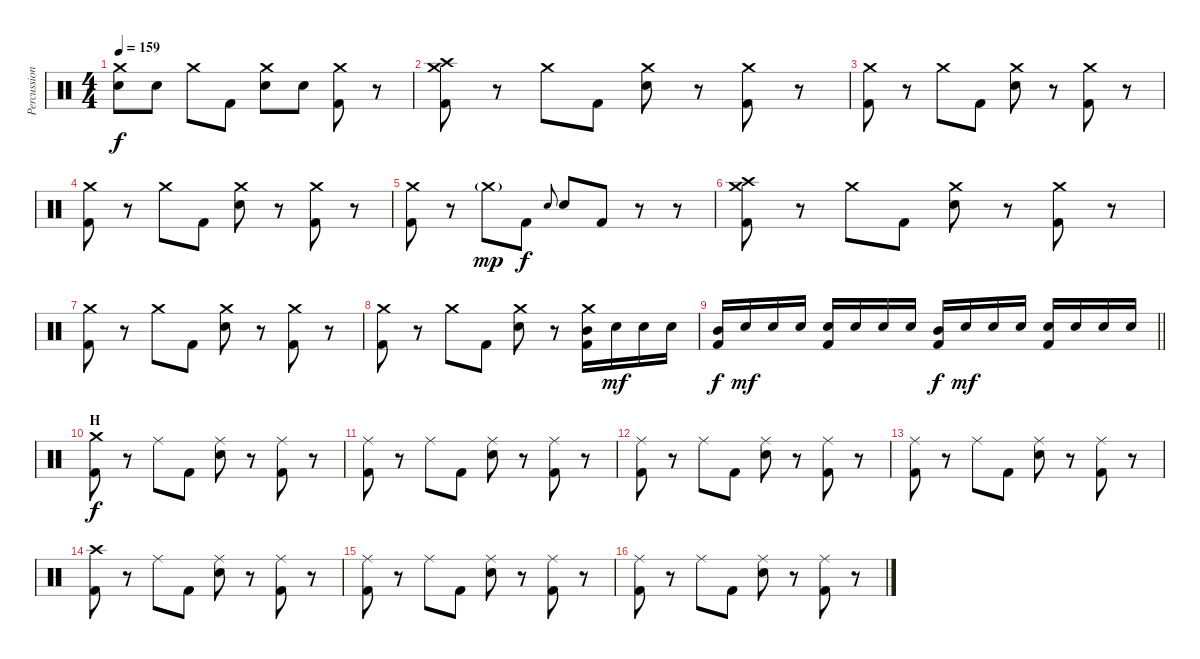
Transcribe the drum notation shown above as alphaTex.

\track ("Percussion" "Percussion") {instrument percussion}
\staff {score}
\articulation defaults
\ts (4 4)
\tempo 159
\clef neutral
\ks c
("Crash medium (hit)" "Snare (hit) 2").8{dy f} "Snare (hit) 2".8 "Crash medium (hit)".8 "Kick (hit) 2".8 ("Crash medium (hit)" "Snare (hit) 2").8 "Snare (hit) 2".8 ("Crash medium (hit)" "Kick (hit) 2").8 r.8 |
("Crash high (hit)" "Crash medium (hit)" "Kick (hit) 2").8 r.8 "Crash medium (hit)".8 "Kick (hit) 2".8 ("Crash medium (hit)" "Snare (hit) 2").8 r.8 ("Crash medium (hit)" "Kick (hit) 2").8 r.8 |
("Crash medium (hit)" "Kick (hit) 2").8 r.8 "Crash medium (hit)".8 "Kick (hit) 2".8 ("Crash medium (hit)" "Snare (hit) 2").8 r.8 ("Crash medium (hit)" "Kick (hit) 2").8 r.8 |
("Crash medium (hit)" "Kick (hit) 2").8 r.8 "Crash medium (hit)".8 "Kick (hit) 2".8 ("Crash medium (hit)" "Snare (hit) 2").8 r.8 ("Crash medium (hit)" "Kick (hit) 2").8 r.8 |
("Crash medium (hit)" "Kick (hit) 2").8 r.8 "Crash medium (hit)"{g}.8{dy mp} "Kick (hit) 2".8{dy f} "Snare (hit) 2".8{gr onbeat} "Snare (hit) 2".8 "Kick (hit) 2".8 r.8 r.8 |
("Crash medium (hit)" "Crash high (hit)" "Kick (hit) 2").8 r.8 "Crash medium (hit)".8 "Kick (hit) 2".8 ("Crash medium (hit)" "Snare (hit) 2").8 r.8 ("Crash medium (hit)" "Kick (hit) 2").8 r.8 |
("Crash medium (hit)" "Kick (hit) 2").8 r.8 "Crash medium (hit)".8 "Kick (hit) 2".8 ("Crash medium (hit)" "Snare (hit) 2").8 r.8 ("Crash medium (hit)" "Kick (hit) 2").8 r.8 |
("Crash medium (hit)" "Kick (hit) 2").8 r.8 "Crash medium (hit)".8 "Kick (hit) 2".8 ("Crash medium (hit)" "Snare (hit) 2").8 r.8 ("Crash medium (hit)" "Mid Tom (hit)" "Kick (hit) 2").16 "Snare (hit) 2".16{dy mf} "Snare (hit) 2".16 "Snare (hit) 2".16 |
\barLineRight lightlight
("Mid Tom (hit)" "Kick (hit) 2").16{dy f} "Snare (hit) 2".16{dy mf} "Snare (hit) 2".16 "Snare (hit) 2".16 ("Snare (hit) 2" "Kick (hit) 2").16 "Snare (hit) 2".16 "Snare (hit) 2".16 "Snare (hit) 2".16 ("Mid Tom (hit)" "Kick (hit) 2").16{dy f} "Snare (hit) 2".16{dy mf} "Snare (hit) 2".16 "Snare (hit) 2".16 ("Snare (hit) 2" "Kick (hit) 2").16 "Snare (hit) 2".16 "Snare (hit) 2".16 "Snare (hit) 2".16 |
\section ("" "H")
("Crash medium (hit)" "Kick (hit) 2").8{dy f} r.8 "Ride (middle)".8 "Kick (hit) 2".8 ("Ride (middle)" "Snare (hit) 2").8 r.8 ("Ride (middle)" "Kick (hit) 2").8 r.8 |
("Ride (middle)" "Kick (hit) 2").8 r.8 "Ride (middle)".8 "Kick (hit) 2".8 ("Ride (middle)" "Snare (hit) 2").8 r.8 ("Ride (middle)" "Kick (hit) 2").8 r.8 |
("Ride (middle)" "Kick (hit) 2").8 r.8 "Ride (middle)".8 "Kick (hit) 2".8 ("Ride (middle)" "Snare (hit) 2").8 r.8 ("Ride (middle)" "Kick (hit) 2").8 r.8 |
("Ride (middle)" "Kick (hit) 2").8 r.8 "Ride (middle)".8 "Kick (hit) 2".8 ("Ride (middle)" "Snare (hit) 2").8 r.8 ("Ride (middle)" "Kick (hit) 2").8 r.8 |
("Crash high (hit)" "Kick (hit) 2").8 r.8 "Ride (middle)".8 "Kick (hit) 2".8 ("Ride (middle)" "Snare (hit) 2").8 r.8 ("Ride (middle)" "Kick (hit) 2").8 r.8 |
("Ride (middle)" "Kick (hit) 2").8 r.8 "Ride (middle)".8 "Kick (hit) 2".8 ("Ride (middle)" "Snare (hit) 2").8 r.8 ("Ride (middle)" "Kick (hit) 2").8 r.8 |
("Ride (middle)" "Kick (hit) 2").8 r.8 "Ride (middle)".8 "Kick (hit) 2".8 ("Ride (middle)" "Snare (hit) 2").8 r.8 ("Ride (middle)" "Kick (hit) 2").8 r.8
